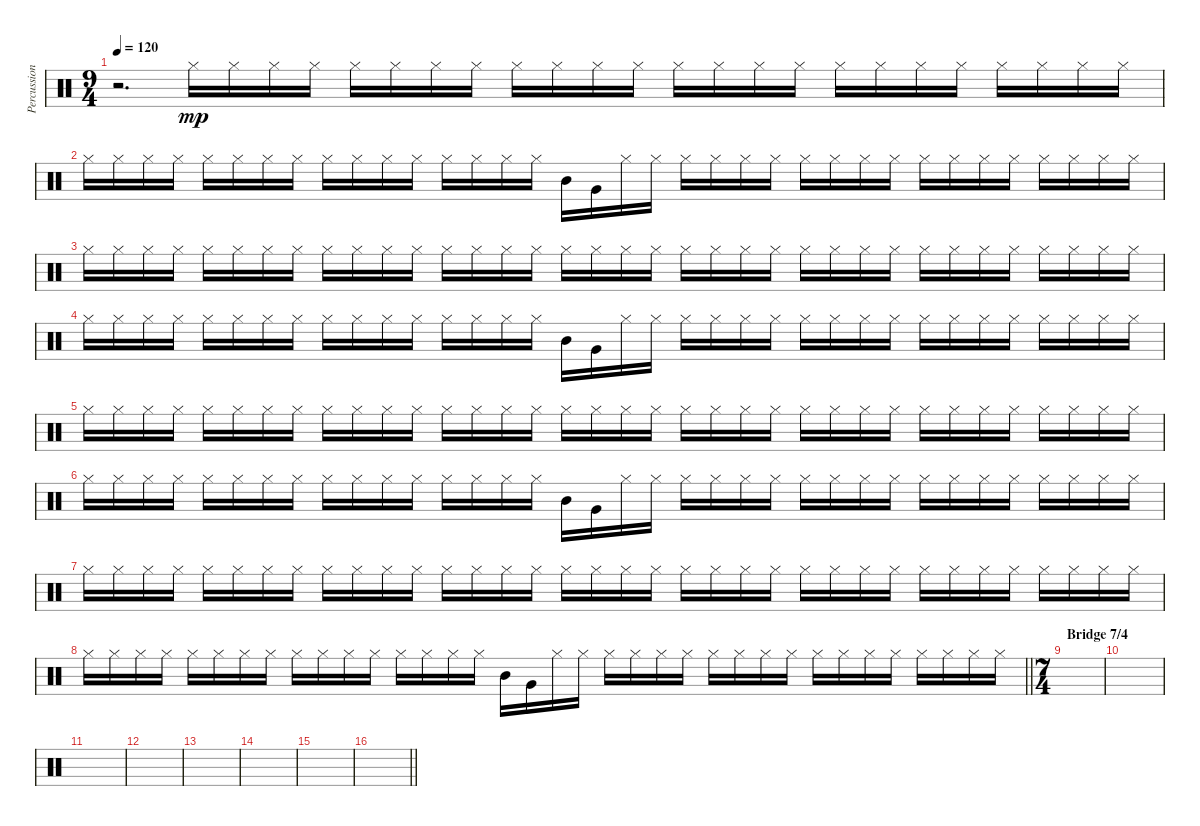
\track ("Percussion" "Percussion") {instrument percussion}
\staff {score}
\articulation defaults
\ts (9 4)
\tempo 120
\clef neutral
\ks c
r.2{d dy mp} "Hi-Hat (closed)".16 "Hi-Hat (closed)".16 "Hi-Hat (closed)".16 "Hi-Hat (closed)".16 "Hi-Hat (closed)".16 "Hi-Hat (closed)".16 "Hi-Hat (closed)".16 "Hi-Hat (closed)".16 "Hi-Hat (closed)".16 "Hi-Hat (closed)".16 "Hi-Hat (closed)".16 "Hi-Hat (closed)".16 "Hi-Hat (closed)".16 "Hi-Hat (closed)".16 "Hi-Hat (closed)".16 "Hi-Hat (closed)".16 "Hi-Hat (closed)".16 "Hi-Hat (closed)".16 "Hi-Hat (closed)".16 "Hi-Hat (closed)".16 "Hi-Hat (closed)".16 "Hi-Hat (closed)".16 "Hi-Hat (closed)".16 "Hi-Hat (closed)".16 |
"Hi-Hat (closed)".16 "Hi-Hat (closed)".16 "Hi-Hat (closed)".16 "Hi-Hat (closed)".16 "Hi-Hat (closed)".16 "Hi-Hat (closed)".16 "Hi-Hat (closed)".16 "Hi-Hat (closed)".16 "Hi-Hat (closed)".16 "Hi-Hat (closed)".16 "Hi-Hat (closed)".16 "Hi-Hat (closed)".16 "Hi-Hat (closed)".16 "Hi-Hat (closed)".16 "Hi-Hat (closed)".16 "Hi-Hat (closed)".16 "Mid Tom (hit)".16 "Very Low Tom (hit)".16 "Hi-Hat (closed)".16 "Hi-Hat (closed)".16 "Hi-Hat (closed)".16 "Hi-Hat (closed)".16 "Hi-Hat (closed)".16 "Hi-Hat (closed)".16 "Hi-Hat (closed)".16 "Hi-Hat (closed)".16 "Hi-Hat (closed)".16 "Hi-Hat (closed)".16 "Hi-Hat (closed)".16 "Hi-Hat (closed)".16 "Hi-Hat (closed)".16 "Hi-Hat (closed)".16 "Hi-Hat (closed)".16 "Hi-Hat (closed)".16 "Hi-Hat (closed)".16 "Hi-Hat (closed)".16 |
"Hi-Hat (closed)".16 "Hi-Hat (closed)".16 "Hi-Hat (closed)".16 "Hi-Hat (closed)".16 "Hi-Hat (closed)".16 "Hi-Hat (closed)".16 "Hi-Hat (closed)".16 "Hi-Hat (closed)".16 "Hi-Hat (closed)".16 "Hi-Hat (closed)".16 "Hi-Hat (closed)".16 "Hi-Hat (closed)".16 "Hi-Hat (closed)".16 "Hi-Hat (closed)".16 "Hi-Hat (closed)".16 "Hi-Hat (closed)".16 "Hi-Hat (closed)".16 "Hi-Hat (closed)".16 "Hi-Hat (closed)".16 "Hi-Hat (closed)".16 "Hi-Hat (closed)".16 "Hi-Hat (closed)".16 "Hi-Hat (closed)".16 "Hi-Hat (closed)".16 "Hi-Hat (closed)".16 "Hi-Hat (closed)".16 "Hi-Hat (closed)".16 "Hi-Hat (closed)".16 "Hi-Hat (closed)".16 "Hi-Hat (closed)".16 "Hi-Hat (closed)".16 "Hi-Hat (closed)".16 "Hi-Hat (closed)".16 "Hi-Hat (closed)".16 "Hi-Hat (closed)".16 "Hi-Hat (closed)".16 |
"Hi-Hat (closed)".16 "Hi-Hat (closed)".16 "Hi-Hat (closed)".16 "Hi-Hat (closed)".16 "Hi-Hat (closed)".16 "Hi-Hat (closed)".16 "Hi-Hat (closed)".16 "Hi-Hat (closed)".16 "Hi-Hat (closed)".16 "Hi-Hat (closed)".16 "Hi-Hat (closed)".16 "Hi-Hat (closed)".16 "Hi-Hat (closed)".16 "Hi-Hat (closed)".16 "Hi-Hat (closed)".16 "Hi-Hat (closed)".16 "Mid Tom (hit)".16 "Very Low Tom (hit)".16 "Hi-Hat (closed)".16 "Hi-Hat (closed)".16 "Hi-Hat (closed)".16 "Hi-Hat (closed)".16 "Hi-Hat (closed)".16 "Hi-Hat (closed)".16 "Hi-Hat (closed)".16 "Hi-Hat (closed)".16 "Hi-Hat (closed)".16 "Hi-Hat (closed)".16 "Hi-Hat (closed)".16 "Hi-Hat (closed)".16 "Hi-Hat (closed)".16 "Hi-Hat (closed)".16 "Hi-Hat (closed)".16 "Hi-Hat (closed)".16 "Hi-Hat (closed)".16 "Hi-Hat (closed)".16 |
"Hi-Hat (closed)".16 "Hi-Hat (closed)".16 "Hi-Hat (closed)".16 "Hi-Hat (closed)".16 "Hi-Hat (closed)".16 "Hi-Hat (closed)".16 "Hi-Hat (closed)".16 "Hi-Hat (closed)".16 "Hi-Hat (closed)".16 "Hi-Hat (closed)".16 "Hi-Hat (closed)".16 "Hi-Hat (closed)".16 "Hi-Hat (closed)".16 "Hi-Hat (closed)".16 "Hi-Hat (closed)".16 "Hi-Hat (closed)".16 "Hi-Hat (closed)".16 "Hi-Hat (closed)".16 "Hi-Hat (closed)".16 "Hi-Hat (closed)".16 "Hi-Hat (closed)".16 "Hi-Hat (closed)".16 "Hi-Hat (closed)".16 "Hi-Hat (closed)".16 "Hi-Hat (closed)".16 "Hi-Hat (closed)".16 "Hi-Hat (closed)".16 "Hi-Hat (closed)".16 "Hi-Hat (closed)".16 "Hi-Hat (closed)".16 "Hi-Hat (closed)".16 "Hi-Hat (closed)".16 "Hi-Hat (closed)".16 "Hi-Hat (closed)".16 "Hi-Hat (closed)".16 "Hi-Hat (closed)".16 |
"Hi-Hat (closed)".16 "Hi-Hat (closed)".16 "Hi-Hat (closed)".16 "Hi-Hat (closed)".16 "Hi-Hat (closed)".16 "Hi-Hat (closed)".16 "Hi-Hat (closed)".16 "Hi-Hat (closed)".16 "Hi-Hat (closed)".16 "Hi-Hat (closed)".16 "Hi-Hat (closed)".16 "Hi-Hat (closed)".16 "Hi-Hat (closed)".16 "Hi-Hat (closed)".16 "Hi-Hat (closed)".16 "Hi-Hat (closed)".16 "Mid Tom (hit)".16 "Very Low Tom (hit)".16 "Hi-Hat (closed)".16 "Hi-Hat (closed)".16 "Hi-Hat (closed)".16 "Hi-Hat (closed)".16 "Hi-Hat (closed)".16 "Hi-Hat (closed)".16 "Hi-Hat (closed)".16 "Hi-Hat (closed)".16 "Hi-Hat (closed)".16 "Hi-Hat (closed)".16 "Hi-Hat (closed)".16 "Hi-Hat (closed)".16 "Hi-Hat (closed)".16 "Hi-Hat (closed)".16 "Hi-Hat (closed)".16 "Hi-Hat (closed)".16 "Hi-Hat (closed)".16 "Hi-Hat (closed)".16 |
"Hi-Hat (closed)".16 "Hi-Hat (closed)".16 "Hi-Hat (closed)".16 "Hi-Hat (closed)".16 "Hi-Hat (closed)".16 "Hi-Hat (closed)".16 "Hi-Hat (closed)".16 "Hi-Hat (closed)".16 "Hi-Hat (closed)".16 "Hi-Hat (closed)".16 "Hi-Hat (closed)".16 "Hi-Hat (closed)".16 "Hi-Hat (closed)".16 "Hi-Hat (closed)".16 "Hi-Hat (closed)".16 "Hi-Hat (closed)".16 "Hi-Hat (closed)".16 "Hi-Hat (closed)".16 "Hi-Hat (closed)".16 "Hi-Hat (closed)".16 "Hi-Hat (closed)".16 "Hi-Hat (closed)".16 "Hi-Hat (closed)".16 "Hi-Hat (closed)".16 "Hi-Hat (closed)".16 "Hi-Hat (closed)".16 "Hi-Hat (closed)".16 "Hi-Hat (closed)".16 "Hi-Hat (closed)".16 "Hi-Hat (closed)".16 "Hi-Hat (closed)".16 "Hi-Hat (closed)".16 "Hi-Hat (closed)".16 "Hi-Hat (closed)".16 "Hi-Hat (closed)".16 "Hi-Hat (closed)".16 |
\barLineRight lightlight "Hi-Hat (closed)".16 "Hi-Hat (closed)".16 "Hi-Hat (closed)".16 "Hi-Hat (closed)".16 "Hi-Hat (closed)".16 "Hi-Hat (closed)".16 "Hi-Hat (closed)".16 "Hi-Hat (closed)".16 "Hi-Hat (closed)".16 "Hi-Hat (closed)".16 "Hi-Hat (closed)".16 "Hi-Hat (closed)".16 "Hi-Hat (closed)".16 "Hi-Hat (closed)".16 "Hi-Hat (closed)".16 "Hi-Hat (closed)".16 "Mid Tom (hit)".16 "Very Low Tom (hit)".16 "Hi-Hat (closed)".16 "Hi-Hat (closed)".16 "Hi-Hat (closed)".16 "Hi-Hat (closed)".16 "Hi-Hat (closed)".16 "Hi-Hat (closed)".16 "Hi-Hat (closed)".16 "Hi-Hat (closed)".16 "Hi-Hat (closed)".16 "Hi-Hat (closed)".16 "Hi-Hat (closed)".16 "Hi-Hat (closed)".16 "Hi-Hat (closed)".16 "Hi-Hat (closed)".16 "Hi-Hat (closed)".16 "Hi-Hat (closed)".16 "Hi-Hat (closed)".16 "Hi-Hat (closed)".16
|
\ts (7 4)
\section ("" "Bridge 7/4")
|
|
|
|
|
|
|
\barLineRight lightlight
